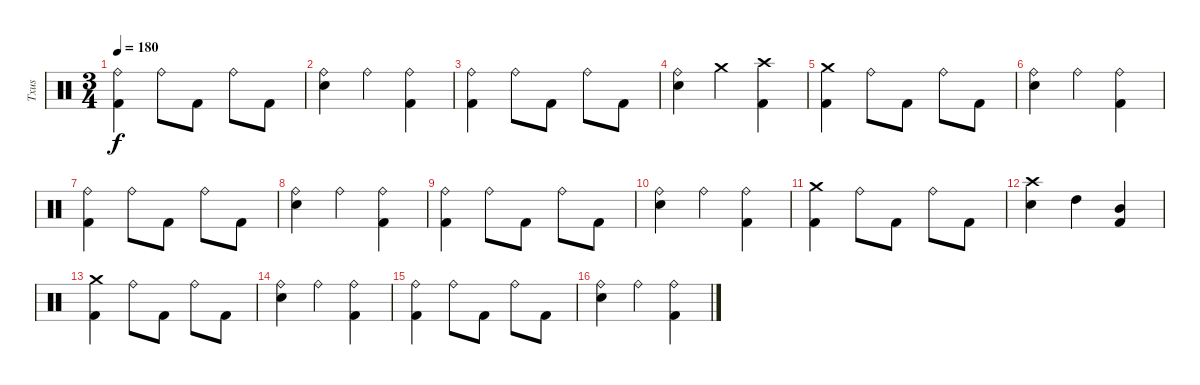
\track ("Txus" "Txus") {instrument percussion}
\staff {score}
\articulation defaults
\ts (3 4)
\tempo 180
\clef neutral
\ks c
("Ride (bell)" "Kick (hit) 2").4{dy f} "Ride (bell)".8 "Kick (hit) 2".8 "Ride (bell)".8 "Kick (hit) 2".8 |
("Ride (bell)" "Snare (hit) 2").4 "Ride (bell)".4 ("Ride (bell)" "Kick (hit) 2").4 |
("Ride (bell)" "Kick (hit) 2").4 "Ride (bell)".8 "Kick (hit) 2".8 "Ride (bell)".8 "Kick (hit) 2".8 |
("Ride (bell)" "Snare (hit) 2").4 "Crash medium (hit)".4 ("Crash high (hit)" "Kick (hit) 2").4 |
("Crash medium (hit)" "Kick (hit) 2").4 "Ride (bell)".8 "Kick (hit) 2".8 "Ride (bell)".8 "Kick (hit) 2".8 |
("Ride (bell)" "Snare (hit) 2").4 "Ride (bell)".4 ("Ride (bell)" "Kick (hit) 2").4 |
("Ride (bell)" "Kick (hit) 2").4 "Ride (bell)".8 "Kick (hit) 2".8 "Ride (bell)".8 "Kick (hit) 2".8 |
("Ride (bell)" "Snare (hit) 2").4 "Ride (bell)".4 ("Ride (bell)" "Kick (hit) 2").4 |
("Ride (bell)" "Kick (hit) 2").4 "Ride (bell)".8 "Kick (hit) 2".8 "Ride (bell)".8 "Kick (hit) 2".8 |
("Ride (bell)" "Snare (hit) 2").4 "Ride (bell)".4 ("Ride (bell)" "Kick (hit) 2").4 |
("Crash medium (hit)" "Kick (hit) 2").4 "Ride (bell)".8 "Kick (hit) 2".8 "Ride (bell)".8 "Kick (hit) 2".8 |
("Crash high (hit)" "Snare (hit) 2").4 "High Tom (hit)".4 ("Mid Tom (hit)" "Kick (hit) 2").4 |
("Crash medium (hit)" "Kick (hit) 2").4 "Ride (bell)".8 "Kick (hit) 2".8 "Ride (bell)".8 "Kick (hit) 2".8 |
("Ride (bell)" "Snare (hit) 2").4 "Ride (bell)".4 ("Ride (bell)" "Kick (hit) 2").4 |
("Ride (bell)" "Kick (hit) 2").4 "Ride (bell)".8 "Kick (hit) 2".8 "Ride (bell)".8 "Kick (hit) 2".8 |
("Ride (bell)" "Snare (hit) 2").4 "Ride (bell)".4 ("Ride (bell)" "Kick (hit) 2").4
